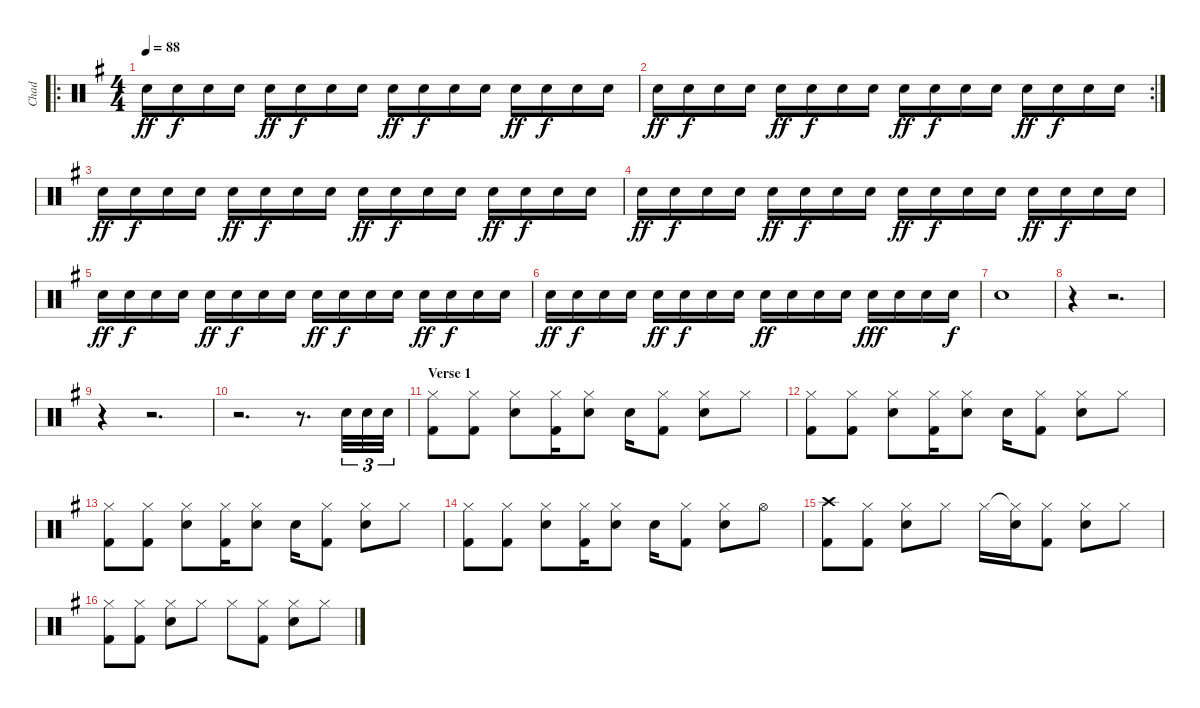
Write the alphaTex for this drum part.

\track ("Chad" "Chad") {instrument percussion}
\staff {score}
\articulation defaults
\ro
\ts (4 4)
\tempo 88
\clef neutral
\ks g "Snare (hit) 2".16{dy ff volume 4} "Snare (hit) 2".16{dy f} "Snare (hit) 2".16 "Snare (hit) 2".16 "Snare (hit) 2".16{dy ff} "Snare (hit) 2".16{dy f} "Snare (hit) 2".16 "Snare (hit) 2".16 "Snare (hit) 2".16{dy ff} "Snare (hit) 2".16{dy f} "Snare (hit) 2".16 "Snare (hit) 2".16 "Snare (hit) 2".16{dy ff} "Snare (hit) 2".16{dy f} "Snare (hit) 2".16 "Snare (hit) 2".16{volume 3}
|
\rc 2 "Snare (hit) 2".16{dy ff volume 4} "Snare (hit) 2".16{dy f} "Snare (hit) 2".16 "Snare (hit) 2".16 "Snare (hit) 2".16{dy ff} "Snare (hit) 2".16{dy f} "Snare (hit) 2".16 "Snare (hit) 2".16 "Snare (hit) 2".16{dy ff} "Snare (hit) 2".16{dy f} "Snare (hit) 2".16 "Snare (hit) 2".16 "Snare (hit) 2".16{dy ff} "Snare (hit) 2".16{dy f} "Snare (hit) 2".16 "Snare (hit) 2".16{volume 4}
|
"Snare (hit) 2".16{dy ff volume 4} "Snare (hit) 2".16{dy f} "Snare (hit) 2".16 "Snare (hit) 2".16 "Snare (hit) 2".16{dy ff} "Snare (hit) 2".16{dy f} "Snare (hit) 2".16 "Snare (hit) 2".16 "Snare (hit) 2".16{dy ff} "Snare (hit) 2".16{dy f} "Snare (hit) 2".16 "Snare (hit) 2".16 "Snare (hit) 2".16{dy ff} "Snare (hit) 2".16{dy f} "Snare (hit) 2".16 "Snare (hit) 2".16{volume 4} |
"Snare (hit) 2".16{dy ff volume 4} "Snare (hit) 2".16{dy f} "Snare (hit) 2".16 "Snare (hit) 2".16 "Snare (hit) 2".16{dy ff} "Snare (hit) 2".16{dy f} "Snare (hit) 2".16 "Snare (hit) 2".16 "Snare (hit) 2".16{dy ff} "Snare (hit) 2".16{dy f} "Snare (hit) 2".16 "Snare (hit) 2".16 "Snare (hit) 2".16{dy ff} "Snare (hit) 2".16{dy f} "Snare (hit) 2".16 "Snare (hit) 2".16{volume 5} |
"Snare (hit) 2".16{dy ff volume 4} "Snare (hit) 2".16{dy f} "Snare (hit) 2".16 "Snare (hit) 2".16 "Snare (hit) 2".16{dy ff} "Snare (hit) 2".16{dy f} "Snare (hit) 2".16 "Snare (hit) 2".16 "Snare (hit) 2".16{dy ff} "Snare (hit) 2".16{dy f} "Snare (hit) 2".16 "Snare (hit) 2".16 "Snare (hit) 2".16{dy ff} "Snare (hit) 2".16{dy f} "Snare (hit) 2".16 "Snare (hit) 2".16{volume 6} |
"Snare (hit) 2".16{dy ff volume 4} "Snare (hit) 2".16{dy f} "Snare (hit) 2".16 "Snare (hit) 2".16 "Snare (hit) 2".16{dy ff} "Snare (hit) 2".16{dy f} "Snare (hit) 2".16 "Snare (hit) 2".16{volume 8} "Snare (hit) 2".16{dy ff volume 8} "Snare (hit) 2".16 "Snare (hit) 2".16 "Snare (hit) 2".16 "Snare (hit) 2".16{dy fff} "Snare (hit) 2".16 "Snare (hit) 2".16 "Snare (hit) 2".16{dy f} |
"Snare (hit) 2".1 |
r.4 r.2{d} |
r.4 r.2{d} |
r.2{d} r.8{d} "Snare (hit) 2".32{tu (3 2)} "Snare (hit) 2".32{tu (3 2)} "Snare (hit) 2".32{tu (3 2)} |
\section ("" "Verse 1")
("Hi-Hat (closed)" "Kick (hit) 2").8 ("Hi-Hat (closed)" "Kick (hit) 2").8 ("Hi-Hat (closed)" "Snare (hit) 2").8 ("Hi-Hat (closed)" "Kick (hit) 2").16 ("Hi-Hat (closed)" "Snare (hit) 2").8 "Snare (hit) 2".16 ("Hi-Hat (closed)" "Kick (hit) 2").8 ("Hi-Hat (closed)" "Snare (hit) 2").8 "Hi-Hat (closed)".8 |
("Hi-Hat (closed)" "Kick (hit) 2").8 ("Hi-Hat (closed)" "Kick (hit) 2").8 ("Hi-Hat (closed)" "Snare (hit) 2").8 ("Hi-Hat (closed)" "Kick (hit) 2").16 ("Hi-Hat (closed)" "Snare (hit) 2").8 "Snare (hit) 2".16 ("Hi-Hat (closed)" "Kick (hit) 2").8 ("Hi-Hat (closed)" "Snare (hit) 2").8 "Hi-Hat (closed)".8 |
("Hi-Hat (closed)" "Kick (hit) 2").8 ("Hi-Hat (closed)" "Kick (hit) 2").8 ("Hi-Hat (closed)" "Snare (hit) 2").8 ("Hi-Hat (closed)" "Kick (hit) 2").16 ("Hi-Hat (closed)" "Snare (hit) 2").8 "Snare (hit) 2".16 ("Hi-Hat (closed)" "Kick (hit) 2").8 ("Hi-Hat (closed)" "Snare (hit) 2").8 "Hi-Hat (closed)".8 |
("Hi-Hat (closed)" "Kick (hit) 2").8 ("Hi-Hat (closed)" "Kick (hit) 2").8 ("Hi-Hat (closed)" "Snare (hit) 2").8 ("Hi-Hat (closed)" "Kick (hit) 2").16 ("Hi-Hat (closed)" "Snare (hit) 2").8 "Snare (hit) 2".16 ("Hi-Hat (closed)" "Kick (hit) 2").8 ("Hi-Hat (closed)" "Snare (hit) 2").8 "Hi-Hat (open)".8 |
("Crash high (hit)" "Kick (hit) 2").8 ("Hi-Hat (closed)" "Kick (hit) 2").8 ("Hi-Hat (closed)" "Snare (hit) 2").8 "Hi-Hat (closed)".8 "Hi-Hat (closed)".16 ("Hi-Hat (closed)"{t} "Snare (hit) 2").16 ("Hi-Hat (closed)" "Kick (hit) 2").8 ("Hi-Hat (closed)" "Snare (hit) 2").8 "Hi-Hat (closed)".8 |
("Hi-Hat (closed)" "Kick (hit) 2").8 ("Hi-Hat (closed)" "Kick (hit) 2").8 ("Hi-Hat (closed)" "Snare (hit) 2").8 "Hi-Hat (closed)".8 "Hi-Hat (closed)".8 ("Hi-Hat (closed)" "Kick (hit) 2").8 ("Hi-Hat (closed)" "Snare (hit) 2").8 "Hi-Hat (closed)".8
